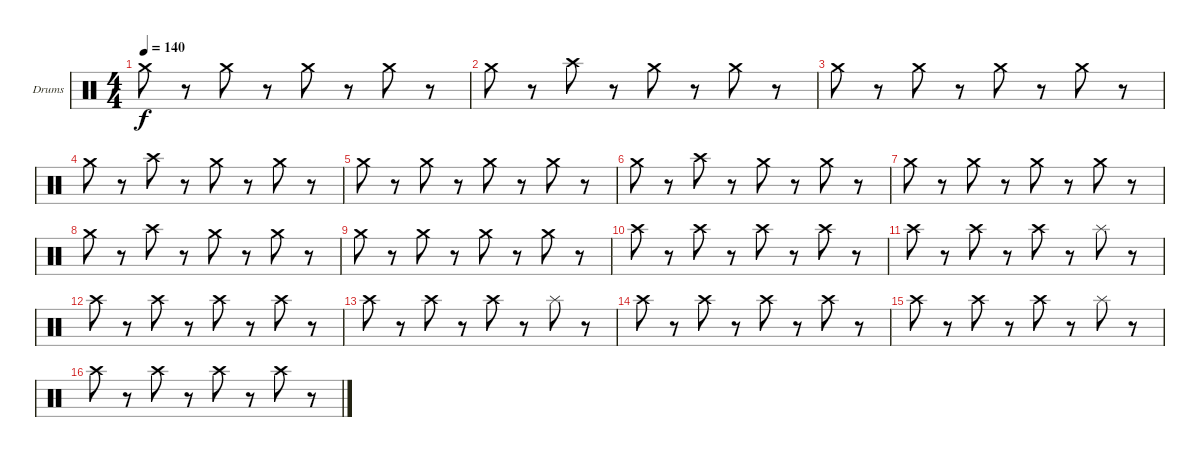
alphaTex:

\defaultSystemsLayout 4
\bracketExtendMode groupsimilarinstruments
\firstSystemTrackNameOrientation horizontal
\otherSystemsTrackNameOrientation horizontal
\track ("Drumkit" "Drums") {instrument percussion}
\staff {score}
\articulation defaults
\ts (4 4)
\tempo 140
\clef neutral
\ks c "Crash medium (hit)".8{dy f}
r.8 "Crash medium (hit)".8 r.8 "Crash medium (hit)".8 r.8 "Crash medium (hit)".8 r.8 |
"Crash medium (hit)".8 r.8 "Crash high (hit)".8 r.8 "Crash medium (hit)".8 r.8 "Crash medium (hit)".8 r.8 |
"Crash medium (hit)".8 r.8 "Crash medium (hit)".8 r.8 "Crash medium (hit)".8 r.8 "Crash medium (hit)".8 r.8 |
"Crash medium (hit)".8 r.8 "Crash high (hit)".8 r.8 "Crash medium (hit)".8 r.8 "Crash medium (hit)".8 r.8 |
"Crash medium (hit)".8 r.8 "Crash medium (hit)".8 r.8 "Crash medium (hit)".8 r.8 "Crash medium (hit)".8 r.8 |
"Crash medium (hit)".8 r.8 "Crash high (hit)".8 r.8 "Crash medium (hit)".8 r.8 "Crash medium (hit)".8 r.8 |
"Crash medium (hit)".8 r.8 "Crash medium (hit)".8 r.8 "Crash medium (hit)".8 r.8 "Crash medium (hit)".8 r.8 |
"Crash medium (hit)".8 r.8 "Crash high (hit)".8 r.8 "Crash medium (hit)".8 r.8 "Crash medium (hit)".8 r.8 |
"Crash medium (hit)".8 r.8 "Crash medium (hit)".8 r.8 "Crash medium (hit)".8 r.8 "Crash medium (hit)".8 r.8 |
"Crash high (hit)".8 r.8 "Crash high (hit)".8 r.8 "Crash high (hit)".8 r.8 "Crash high (hit)".8 r.8 |
"Crash high (hit)".8 r.8 "Crash high (hit)".8 r.8 "Crash high (hit)".8 r.8 "Splash (hit)".8 r.8 |
"Crash high (hit)".8 r.8 "Crash high (hit)".8 r.8 "Crash high (hit)".8 r.8 "Crash high (hit)".8 r.8 |
"Crash high (hit)".8 r.8 "Crash high (hit)".8 r.8 "Crash high (hit)".8 r.8 "Splash (hit)".8 r.8 |
"Crash high (hit)".8 r.8 "Crash high (hit)".8 r.8 "Crash high (hit)".8 r.8 "Crash high (hit)".8 r.8 |
"Crash high (hit)".8 r.8 "Crash high (hit)".8 r.8 "Crash high (hit)".8 r.8 "Splash (hit)".8 r.8 |
"Crash high (hit)".8 r.8 "Crash high (hit)".8 r.8 "Crash high (hit)".8 r.8 "Crash high (hit)".8 r.8
